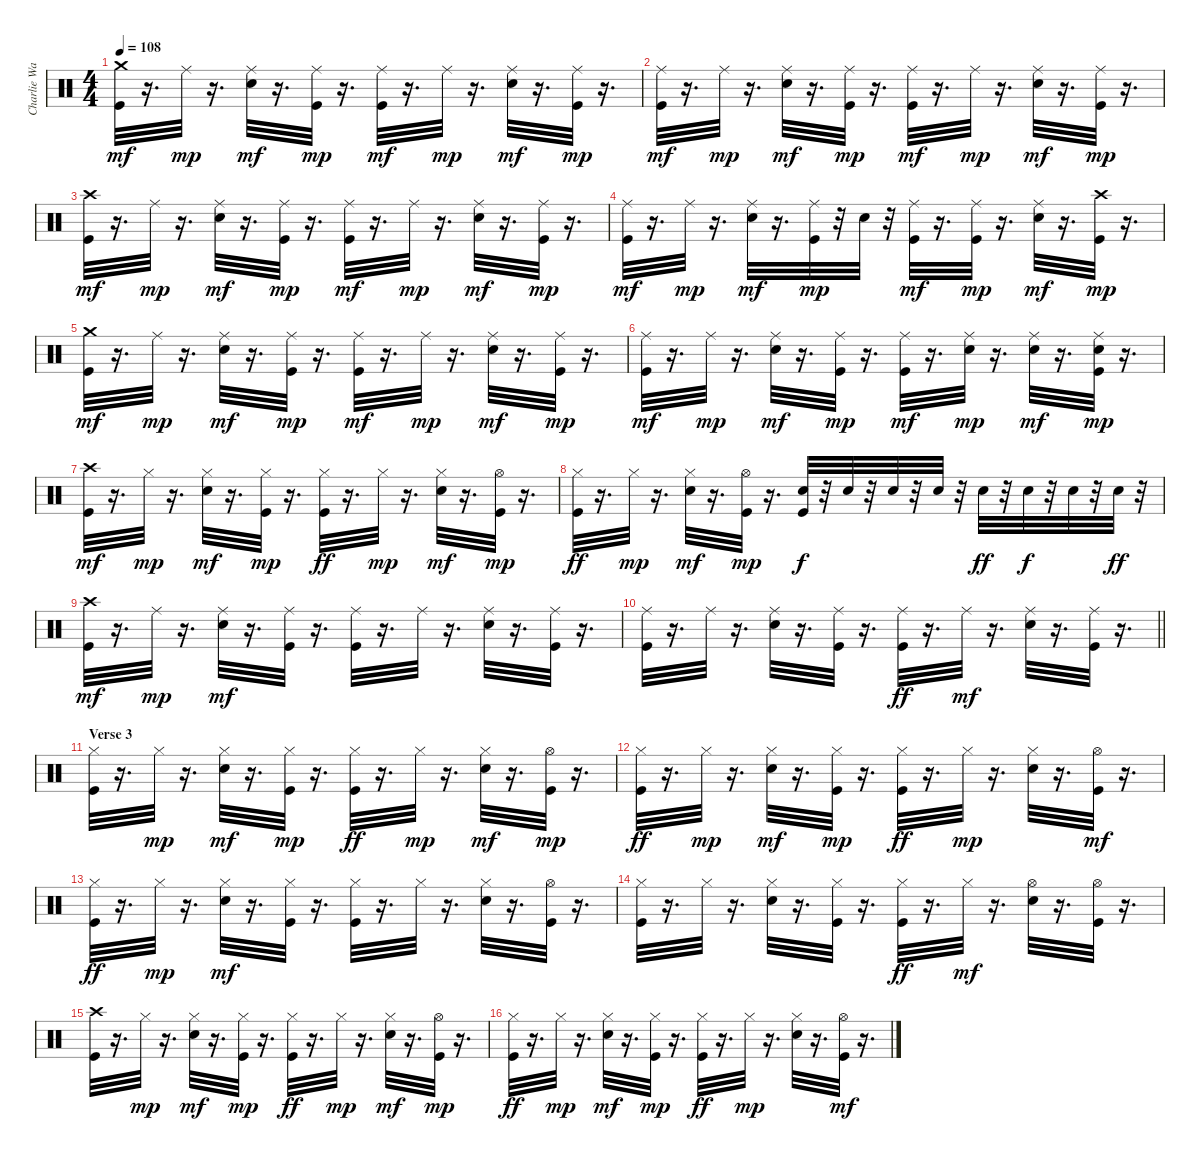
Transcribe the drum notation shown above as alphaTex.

\track ("Charlie Watts" "Charlie Wa") {instrument percussion}
\staff {score}
\articulation defaults
\ts (4 4)
\tempo 108
\clef neutral
\ks c
("Kick (hit)" "Crash medium (hit)").32{dy mf} r.16{d} "Ride (middle)".32{dy mp} r.16{d} ("Electric Snare (hit)" "Ride (middle)").32{dy mf} r.16{d} ("Kick (hit)" "Ride (middle)").32{dy mp} r.16{d} ("Kick (hit)" "Ride (middle)").32{dy mf} r.16{d} "Ride (middle)".32{dy mp} r.16{d} ("Electric Snare (hit)" "Ride (middle)").32{dy mf} r.16{d} ("Kick (hit)" "Ride (middle)").32{dy mp} r.16{d} |
("Kick (hit)" "Ride (middle)").32{dy mf} r.16{d} "Ride (middle)".32{dy mp} r.16{d} ("Electric Snare (hit)" "Ride (middle)").32{dy mf} r.16{d} ("Kick (hit)" "Ride (middle)").32{dy mp} r.16{d} ("Kick (hit)" "Ride (middle)").32{dy mf} r.16{d} "Ride (middle)".32{dy mp} r.16{d} ("Electric Snare (hit)" "Ride (middle)").32{dy mf} r.16{d} ("Kick (hit)" "Ride (middle)").32{dy mp} r.16{d} |
("Kick (hit)" "Crash high (hit)").32{dy mf} r.16{d} "Ride (middle)".32{dy mp} r.16{d} ("Electric Snare (hit)" "Ride (middle)").32{dy mf} r.16{d} ("Kick (hit)" "Ride (middle)").32{dy mp} r.16{d} ("Kick (hit)" "Ride (middle)").32{dy mf} r.16{d} "Ride (middle)".32{dy mp} r.16{d} ("Electric Snare (hit)" "Ride (middle)").32{dy mf} r.16{d} ("Kick (hit)" "Ride (middle)").32{dy mp} r.16{d} |
("Kick (hit)" "Ride (middle)").32{dy mf} r.16{d} "Ride (middle)".32{dy mp} r.16{d} ("Electric Snare (hit)" "Ride (middle)").32{dy mf} r.16{d} ("Kick (hit)" "Ride (middle)").32{dy mp} r.32 "Electric Snare (hit)".32 r.32 ("Kick (hit)" "Ride (middle)").32{dy mf} r.16{d} ("Kick (hit)" "Ride (middle)").32{dy mp} r.16{d} ("Electric Snare (hit)" "Ride (middle)").32{dy mf} r.16{d} ("Kick (hit)" "Crash high (hit)").32{dy mp} r.16{d} |
("Kick (hit)" "Crash medium (hit)").32{dy mf} r.16{d} "Ride (middle)".32{dy mp} r.16{d} ("Electric Snare (hit)" "Ride (middle)").32{dy mf} r.16{d} ("Kick (hit)" "Ride (middle)").32{dy mp} r.16{d} ("Kick (hit)" "Ride (middle)").32{dy mf} r.16{d} "Ride (middle)".32{dy mp} r.16{d} ("Electric Snare (hit)" "Ride (middle)").32{dy mf} r.16{d} ("Kick (hit)" "Ride (middle)").32{dy mp} r.16{d} |
("Kick (hit)" "Ride (middle)").32{dy mf} r.16{d} "Ride (middle)".32{dy mp} r.16{d} ("Electric Snare (hit)" "Ride (middle)").32{dy mf} r.16{d} ("Kick (hit)" "Ride (middle)").32{dy mp} r.16{d} ("Kick (hit)" "Ride (middle)").32{dy mf} r.16{d} ("Electric Snare (hit)" "Ride (middle)").32{dy mp} r.16{d} ("Electric Snare (hit)" "Ride (middle)").32{dy mf} r.16{d} ("Kick (hit)" "Electric Snare (hit)" "Ride (middle)").32{dy mp} r.16{d} |
("Kick (hit)" "Crash high (hit)").32{dy mf} r.16{d} "Hi-Hat (closed)".32{dy mp} r.16{d} ("Electric Snare (hit)" "Hi-Hat (closed)").32{dy mf} r.16{d} ("Kick (hit)" "Hi-Hat (closed)").32{dy mp} r.16{d} ("Kick (hit)" "Hi-Hat (closed)").32{dy ff} r.16{d} "Hi-Hat (closed)".32{dy mp} r.16{d} ("Electric Snare (hit)" "Hi-Hat (closed)").32{dy mf} r.16{d} ("Kick (hit)" "Hi-Hat (open)").32{dy mp} r.16{d} |
("Kick (hit)" "Hi-Hat (closed)").32{dy ff} r.16{d} "Hi-Hat (closed)".32{dy mp} r.16{d} ("Electric Snare (hit)" "Hi-Hat (closed)").32{dy mf} r.16{d} ("Kick (hit)" "Hi-Hat (open)").32{dy mp} r.16{d} ("Kick (hit)" "Electric Snare (hit)").32{dy f} r.32 "Electric Snare (hit)".32 r.32 "Electric Snare (hit)".32 r.32 "Electric Snare (hit)".32 r.32 "Electric Snare (hit)".32{dy ff} r.32 "Electric Snare (hit)".32{dy f} r.32 "Electric Snare (hit)".32 r.32 "Electric Snare (hit)".32{dy ff} r.32 |
("Kick (hit)" "Crash high (hit)").32{dy mf} r.16{d} "Ride (middle)".32{dy mp} r.16{d} ("Electric Snare (hit)" "Ride (middle)").32{dy mf} r.16{d} ("Kick (hit)" "Ride (middle)").32 r.16{d} ("Kick (hit)" "Ride (middle)").32 r.16{d} "Ride (middle)".32 r.16{d} ("Electric Snare (hit)" "Ride (middle)").32 r.16{d} ("Kick (hit)" "Ride (middle)").32 r.16{d} |
\barLineRight lightlight
("Kick (hit)" "Ride (middle)").32 r.16{d} "Ride (middle)".32 r.16{d} ("Electric Snare (hit)" "Ride (middle)").32 r.16{d} ("Kick (hit)" "Ride (middle)").32 r.16{d} ("Kick (hit)" "Ride (middle)").32{dy ff} r.16{d} "Ride (middle)".32{dy mf} r.16{d} ("Electric Snare (hit)" "Ride (middle)").32 r.16{d} ("Kick (hit)" "Ride (middle)").32 r.16{d} |
\section ("" "Verse 3")
("Kick (hit)" "Hi-Hat (closed)").32 r.16{d} "Hi-Hat (closed)".32{dy mp} r.16{d} ("Electric Snare (hit)" "Hi-Hat (closed)").32{dy mf} r.16{d} ("Kick (hit)" "Hi-Hat (closed)").32{dy mp} r.16{d} ("Kick (hit)" "Hi-Hat (closed)").32{dy ff} r.16{d} "Hi-Hat (closed)".32{dy mp} r.16{d} ("Electric Snare (hit)" "Hi-Hat (closed)").32{dy mf} r.16{d} ("Kick (hit)" "Hi-Hat (open)").32{dy mp} r.16{d} |
("Kick (hit)" "Hi-Hat (closed)").32{dy ff} r.16{d} "Hi-Hat (closed)".32{dy mp} r.16{d} ("Electric Snare (hit)" "Hi-Hat (closed)").32{dy mf} r.16{d} ("Kick (hit)" "Hi-Hat (closed)").32{dy mp} r.16{d} ("Kick (hit)" "Hi-Hat (closed)").32{dy ff} r.16{d} "Hi-Hat (closed)".32{dy mp} r.16{d} ("Electric Snare (hit)" "Hi-Hat (closed)").32 r.16{d} ("Kick (hit)" "Hi-Hat (open)").32{dy mf} r.16{d} |
("Kick (hit)" "Hi-Hat (closed)").32{dy ff} r.16{d} "Hi-Hat (closed)".32{dy mp} r.16{d} ("Electric Snare (hit)" "Hi-Hat (closed)").32{dy mf} r.16{d} ("Kick (hit)" "Hi-Hat (closed)").32 r.16{d} ("Kick (hit)" "Hi-Hat (closed)").32 r.16{d} "Hi-Hat (closed)".32 r.16{d} ("Electric Snare (hit)" "Hi-Hat (closed)").32 r.16{d} ("Kick (hit)" "Hi-Hat (open)").32 r.16{d} |
("Kick (hit)" "Hi-Hat (closed)").32 r.16{d} "Hi-Hat (closed)".32 r.16{d} ("Electric Snare (hit)" "Hi-Hat (closed)").32 r.16{d} ("Kick (hit)" "Hi-Hat (closed)").32 r.16{d} ("Kick (hit)" "Hi-Hat (closed)").32{dy ff} r.16{d} "Hi-Hat (closed)".32{dy mf} r.16{d} ("Electric Snare (hit)" "Hi-Hat (open)").32 r.16{d} ("Kick (hit)" "Hi-Hat (open)").32 r.16{d} |
("Kick (hit)" "Crash high (hit)").32 r.16{d} "Hi-Hat (closed)".32{dy mp} r.16{d} ("Electric Snare (hit)" "Hi-Hat (closed)").32{dy mf} r.16{d} ("Kick (hit)" "Hi-Hat (closed)").32{dy mp} r.16{d} ("Kick (hit)" "Hi-Hat (closed)").32{dy ff} r.16{d} "Hi-Hat (closed)".32{dy mp} r.16{d} ("Electric Snare (hit)" "Hi-Hat (closed)").32{dy mf} r.16{d} ("Kick (hit)" "Hi-Hat (open)").32{dy mp} r.16{d} |
("Kick (hit)" "Hi-Hat (closed)").32{dy ff} r.16{d} "Hi-Hat (closed)".32{dy mp} r.16{d} ("Electric Snare (hit)" "Hi-Hat (closed)").32{dy mf} r.16{d} ("Kick (hit)" "Hi-Hat (closed)").32{dy mp} r.16{d} ("Kick (hit)" "Hi-Hat (closed)").32{dy ff} r.16{d} "Hi-Hat (closed)".32{dy mp} r.16{d} ("Electric Snare (hit)" "Hi-Hat (closed)").32 r.16{d} ("Kick (hit)" "Hi-Hat (open)").32{dy mf} r.16{d}
